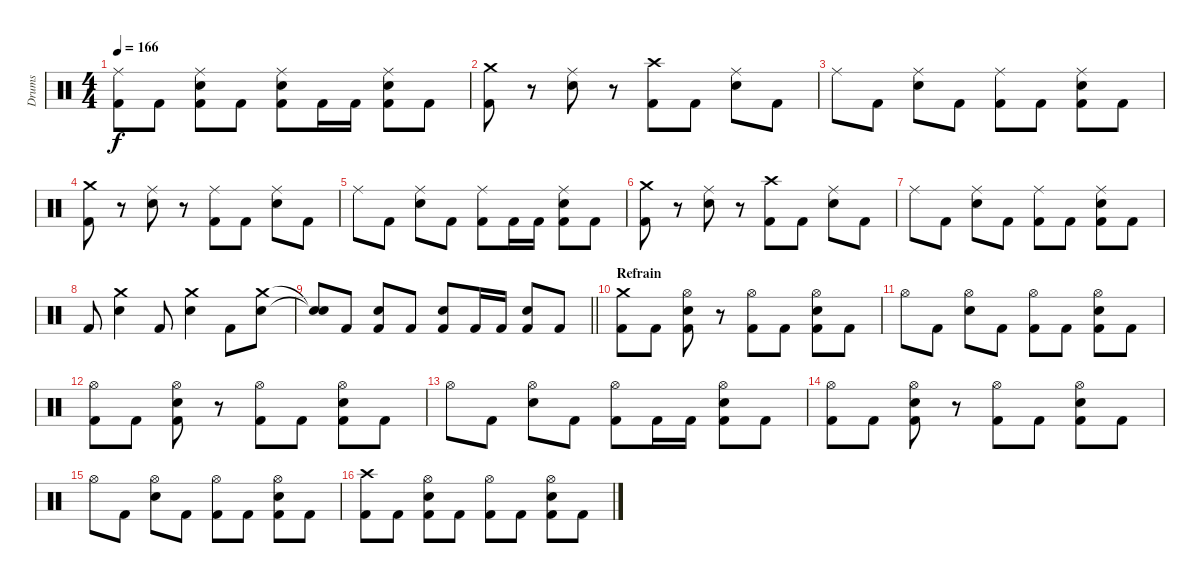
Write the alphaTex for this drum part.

\track ("Drums" "Drums") {instrument percussion}
\staff {score}
\articulation defaults
\ts (4 4)
\tempo 166
\clef neutral
\ks c
("Ride (middle)" "Kick (hit) 2").8{dy f} "Kick (hit) 2".8 ("Ride (middle)" "Electric Snare (hit)" "Kick (hit) 2").8 "Kick (hit) 2".8 ("Ride (middle)" "Electric Snare (hit)" "Kick (hit) 2").8 "Kick (hit) 2".16 "Kick (hit) 2".16 ("Ride (middle)" "Electric Snare (hit)" "Kick (hit) 2").8 "Kick (hit) 2".8 |
("Crash medium (hit)" "Kick (hit) 2").8 r.8 ("Ride (middle)" "Electric Snare (hit)").8 r.8 ("Crash high (hit)" "Kick (hit) 2").8 "Kick (hit) 2".8 ("Ride (middle)" "Electric Snare (hit)").8 "Kick (hit) 2".8 |
"Ride (middle)".8 "Kick (hit) 2".8 ("Ride (middle)" "Electric Snare (hit)").8 "Kick (hit) 2".8 ("Ride (middle)" "Kick (hit) 2").8 "Kick (hit) 2".8 ("Ride (middle)" "Electric Snare (hit)" "Kick (hit) 2").8 "Kick (hit) 2".8 |
("Crash medium (hit)" "Kick (hit) 2").8 r.8 ("Ride (middle)" "Electric Snare (hit)").8 r.8 ("Ride (middle)" "Kick (hit) 2").8 "Kick (hit) 2".8 ("Ride (middle)" "Electric Snare (hit)").8 "Kick (hit) 2".8 |
"Ride (middle)".8 "Kick (hit) 2".8 ("Ride (middle)" "Electric Snare (hit)").8 "Kick (hit) 2".8 ("Ride (middle)" "Kick (hit) 2").8 "Kick (hit) 2".16 "Kick (hit) 2".16 ("Ride (middle)" "Electric Snare (hit)" "Kick (hit) 2").8 "Kick (hit) 2".8 |
("Crash medium (hit)" "Kick (hit) 2").8 r.8 ("Ride (middle)" "Electric Snare (hit)").8 r.8 ("Crash high (hit)" "Kick (hit) 2").8 "Kick (hit) 2".8 ("Ride (middle)" "Electric Snare (hit)").8 "Kick (hit) 2".8 |
"Ride (middle)".8 "Kick (hit) 2".8 ("Ride (middle)" "Electric Snare (hit)").8 "Kick (hit) 2".8 ("Ride (middle)" "Kick (hit) 2").8 "Kick (hit) 2".8 ("Ride (middle)" "Electric Snare (hit)" "Kick (hit) 2").8 "Kick (hit) 2".8 |
"Kick (hit) 2".8 ("Crash medium (hit)" "Electric Snare (hit)").4 "Kick (hit) 2".8 ("Crash medium (hit)" "Electric Snare (hit)").4 "Kick (hit) 2".8 ("Crash medium (hit)" "Electric Snare (hit)").8 |
\barLineRight lightlight
("Snare (hit)"{t} "Snare (hit)"{t}).8 "Kick (hit) 2".8 ("Electric Snare (hit)" "Kick (hit) 2").8 "Kick (hit) 2".8 ("Electric Snare (hit)" "Kick (hit) 2").8 "Kick (hit) 2".16 "Kick (hit) 2".16 ("Electric Snare (hit)" "Kick (hit) 2").8 "Kick (hit) 2".8 |
\section ("" "Refrain")
("Crash medium (hit)" "Kick (hit) 2").8 "Kick (hit) 2".8 ("Hi-Hat (open)" "Electric Snare (hit)" "Kick (hit) 2").8 r.8 ("Hi-Hat (open)" "Kick (hit) 2").8 "Kick (hit) 2".8 ("Hi-Hat (open)" "Electric Snare (hit)" "Kick (hit) 2").8 "Kick (hit) 2".8 |
"Hi-Hat (open)".8 "Kick (hit) 2".8 ("Hi-Hat (open)" "Electric Snare (hit)").8 "Kick (hit) 2".8 ("Hi-Hat (open)" "Kick (hit) 2").8 "Kick (hit) 2".8 ("Hi-Hat (open)" "Electric Snare (hit)" "Kick (hit) 2").8 "Kick (hit) 2".8 |
("Hi-Hat (open)" "Kick (hit) 2").8 "Kick (hit) 2".8 ("Hi-Hat (open)" "Electric Snare (hit)" "Kick (hit) 2").8 r.8 ("Hi-Hat (open)" "Kick (hit) 2").8 "Kick (hit) 2".8 ("Hi-Hat (open)" "Electric Snare (hit)" "Kick (hit) 2").8 "Kick (hit) 2".8 |
"Hi-Hat (open)".8 "Kick (hit) 2".8 ("Hi-Hat (open)" "Electric Snare (hit)").8 "Kick (hit) 2".8 ("Hi-Hat (open)" "Kick (hit) 2").8 "Kick (hit) 2".16 "Kick (hit) 2".16 ("Hi-Hat (open)" "Electric Snare (hit)" "Kick (hit) 2").8 "Kick (hit) 2".8 |
("Hi-Hat (open)" "Kick (hit) 2").8 "Kick (hit) 2".8 ("Hi-Hat (open)" "Electric Snare (hit)" "Kick (hit) 2").8 r.8 ("Hi-Hat (open)" "Kick (hit) 2").8 "Kick (hit) 2".8 ("Hi-Hat (open)" "Electric Snare (hit)" "Kick (hit) 2").8 "Kick (hit) 2".8 |
"Hi-Hat (open)".8 "Kick (hit) 2".8 ("Hi-Hat (open)" "Electric Snare (hit)").8 "Kick (hit) 2".8 ("Hi-Hat (open)" "Kick (hit) 2").8 "Kick (hit) 2".8 ("Hi-Hat (open)" "Electric Snare (hit)" "Kick (hit) 2").8 "Kick (hit) 2".8 |
("Crash high (hit)" "Kick (hit) 2").8 "Kick (hit) 2".8 ("Hi-Hat (open)" "Electric Snare (hit)" "Kick (hit) 2").8 "Kick (hit) 2".8 ("Hi-Hat (open)" "Kick (hit) 2").8 "Kick (hit) 2".8 ("Hi-Hat (open)" "Electric Snare (hit)" "Kick (hit) 2").8 "Kick (hit) 2".8
